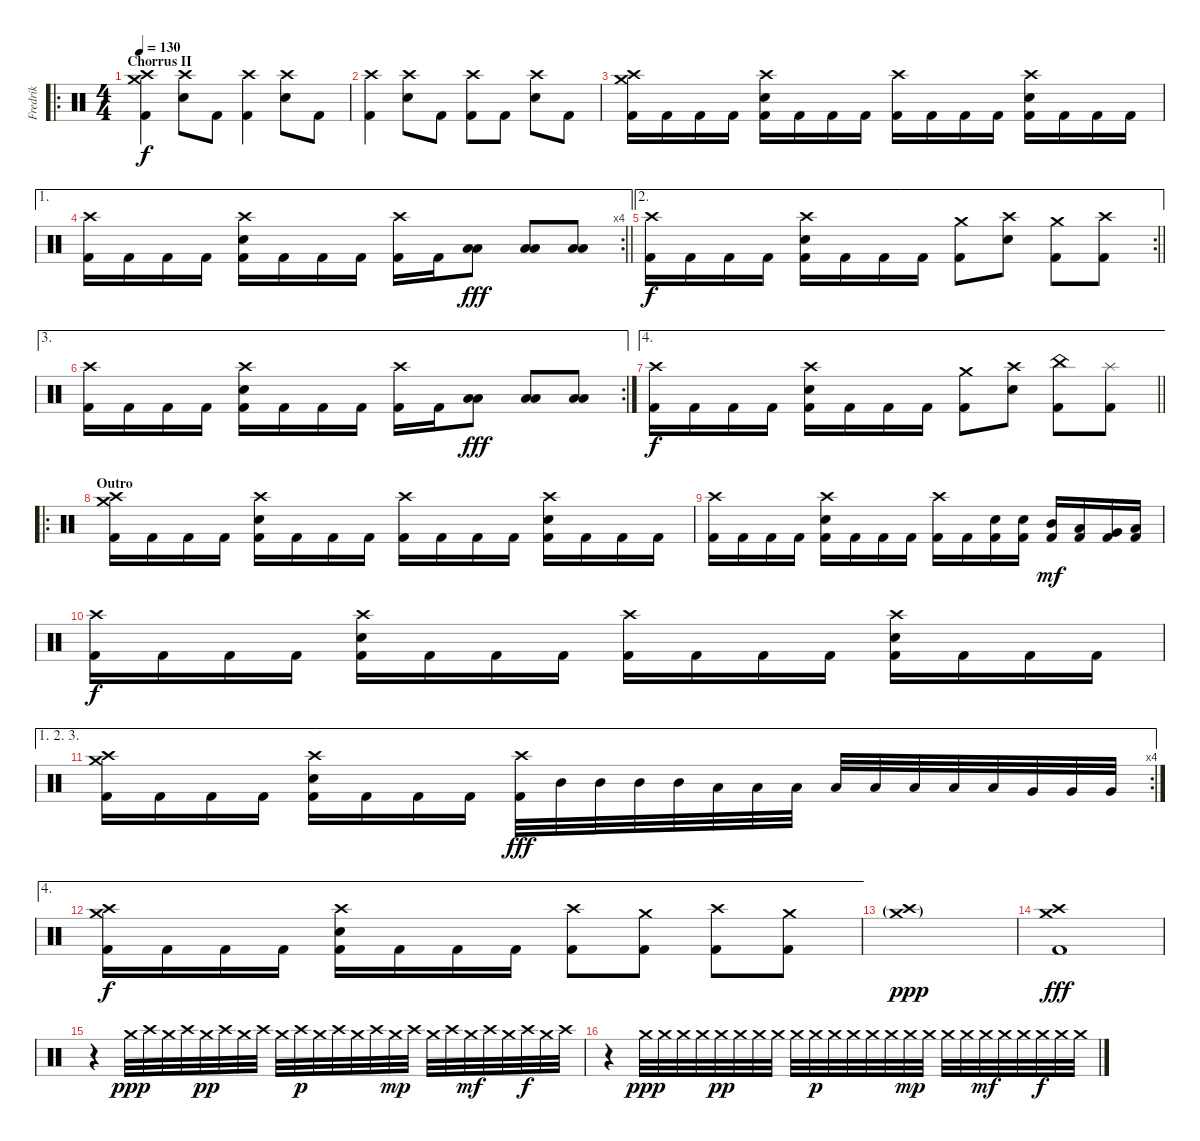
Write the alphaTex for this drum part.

\track ("Fredrik" "Fredrik") {instrument percussion}
\staff {score}
\articulation defaults
\ro
\ts (4 4)
\section ("" "Chorrus II")
\tempo 130
\clef neutral
\ks c
("Crash medium (hit)" "Crash high (hit)" "Kick (hit) 2").4{dy f} ("Crash high (hit)" "Electric Snare (hit)").8 "Kick (hit) 2".8 ("Crash high (hit)" "Kick (hit) 2").4 ("Crash high (hit)" "Electric Snare (hit)").8 "Kick (hit) 2".8 |
("Crash high (hit)" "Kick (hit) 2").4 ("Crash high (hit)" "Electric Snare (hit)").8 "Kick (hit) 2".8 ("Crash high (hit)" "Kick (hit) 2").8 "Kick (hit) 2".8 ("Crash high (hit)" "Electric Snare (hit)").8 "Kick (hit) 2".8 |
("Crash medium (hit)" "Crash high (hit)" "Kick (hit) 2").16 "Kick (hit) 2".16 "Kick (hit) 2".16 "Kick (hit) 2".16 ("Crash high (hit)" "Electric Snare (hit)" "Kick (hit) 2").16 "Kick (hit) 2".16 "Kick (hit) 2".16 "Kick (hit) 2".16 ("Crash high (hit)" "Kick (hit) 2").16 "Kick (hit) 2".16 "Kick (hit) 2".16 "Kick (hit) 2".16 ("Crash high (hit)" "Electric Snare (hit)" "Kick (hit) 2").16 "Kick (hit) 2".16 "Kick (hit) 2".16 "Kick (hit) 2".16 |
\ae 1
\rc 4
\barLineRight lightlight
("Crash high (hit)" "Kick (hit) 2").16 "Kick (hit) 2".16 "Kick (hit) 2".16 "Kick (hit) 2".16 ("Crash high (hit)" "Electric Snare (hit)" "Kick (hit) 2").16 "Kick (hit) 2".16 "Kick (hit) 2".16 "Kick (hit) 2".16 ("Crash high (hit)" "Kick (hit) 2").16 "Kick (hit) 2".16 ("Low Tom (hit)" "Low Floor Tom (hit)").8{dy fff} ("Low Tom (hit)" "Low Floor Tom (hit)").8 ("Low Tom (hit)" "Low Floor Tom (hit)").8 |
\ae 2
\rc 2
\barLineRight lightlight
("Crash high (hit)" "Kick (hit) 2").16{dy f} "Kick (hit) 2".16 "Kick (hit) 2".16 "Kick (hit) 2".16 ("Crash high (hit)" "Electric Snare (hit)" "Kick (hit) 2").16 "Kick (hit) 2".16 "Kick (hit) 2".16 "Kick (hit) 2".16 ("Crash medium (hit)" "Kick (hit) 2").8 ("Crash high (hit)" "Electric Snare (hit)").8 ("Crash medium (hit)" "Kick (hit) 2").8 ("Crash high (hit)" "Kick (hit) 2").8 |
\ae 3
\rc 2
("Crash high (hit)" "Kick (hit) 2").16 "Kick (hit) 2".16 "Kick (hit) 2".16 "Kick (hit) 2".16 ("Crash high (hit)" "Electric Snare (hit)" "Kick (hit) 2").16 "Kick (hit) 2".16 "Kick (hit) 2".16 "Kick (hit) 2".16 ("Crash high (hit)" "Kick (hit) 2").16 "Kick (hit) 2".16 ("Low Tom (hit)" "Low Floor Tom (hit)").8{dy fff} ("Low Tom (hit)" "Low Floor Tom (hit)").8 ("Low Tom (hit)" "Low Floor Tom (hit)").8 |
\ae 4
\barLineRight lightlight
("Crash high (hit)" "Kick (hit) 2").16{dy f} "Kick (hit) 2".16 "Kick (hit) 2".16 "Kick (hit) 2".16 ("Crash high (hit)" "Electric Snare (hit)" "Kick (hit) 2").16 "Kick (hit) 2".16 "Kick (hit) 2".16 "Kick (hit) 2".16 ("Crash medium (hit)" "Kick (hit) 2").8 ("Crash high (hit)" "Electric Snare (hit)").8 ("China (hit)" "Kick (hit) 2").8 ("Splash (hit)" "Kick (hit) 2").8 |
\ro
\section ("" "Outro")
("Crash medium (hit)" "Crash high (hit)" "Kick (hit) 2").16 "Kick (hit) 2".16 "Kick (hit) 2".16 "Kick (hit) 2".16 ("Crash high (hit)" "Electric Snare (hit)" "Kick (hit) 2").16 "Kick (hit) 2".16 "Kick (hit) 2".16 "Kick (hit) 2".16 ("Crash high (hit)" "Kick (hit) 2").16 "Kick (hit) 2".16 "Kick (hit) 2".16 "Kick (hit) 2".16 ("Crash high (hit)" "Electric Snare (hit)" "Kick (hit) 2").16 "Kick (hit) 2".16 "Kick (hit) 2".16 "Kick (hit) 2".16 |
("Crash high (hit)" "Kick (hit) 2").16 "Kick (hit) 2".16 "Kick (hit) 2".16 "Kick (hit) 2".16 ("Crash high (hit)" "Electric Snare (hit)" "Kick (hit) 2").16 "Kick (hit) 2".16 "Kick (hit) 2".16 "Kick (hit) 2".16 ("Crash high (hit)" "Kick (hit) 2").16 "Kick (hit) 2".16 ("Electric Snare (hit)" "Kick (hit) 2").16 ("Electric Snare (hit)" "Kick (hit) 2").16 ("Mid Tom (hit)" "Kick (hit) 2").16{dy mf} ("Low Tom (hit)" "Kick (hit) 2").16 ("Very Low Tom (hit)" "Kick (hit) 2").16 ("Low Floor Tom (hit)" "Kick (hit) 2").16 |
("Crash high (hit)" "Kick (hit) 2").16{dy f} "Kick (hit) 2".16 "Kick (hit) 2".16 "Kick (hit) 2".16 ("Crash high (hit)" "Electric Snare (hit)" "Kick (hit) 2").16 "Kick (hit) 2".16 "Kick (hit) 2".16 "Kick (hit) 2".16 ("Crash high (hit)" "Kick (hit) 2").16 "Kick (hit) 2".16 "Kick (hit) 2".16 "Kick (hit) 2".16 ("Crash high (hit)" "Electric Snare (hit)" "Kick (hit) 2").16 "Kick (hit) 2".16 "Kick (hit) 2".16 "Kick (hit) 2".16 |
\ae (1 2 3)
\rc 4
("Crash medium (hit)" "Crash high (hit)" "Kick (hit) 2").16 "Kick (hit) 2".16 "Kick (hit) 2".16 "Kick (hit) 2".16 ("Crash high (hit)" "Electric Snare (hit)" "Kick (hit) 2").16 "Kick (hit) 2".16 "Kick (hit) 2".16 "Kick (hit) 2".16 ("Crash high (hit)" "Kick (hit) 2").32{dy fff} "Mid Tom (hit)".32 "Mid Tom (hit)".32 "Mid Tom (hit)".32 "Mid Tom (hit)".32 "Low Tom (hit)".32 "Low Tom (hit)".32 "Low Tom (hit)".32 "Low Tom (hit)".32 "Low Floor Tom (hit)".32 "Low Floor Tom (hit)".32 "Low Floor Tom (hit)".32 "Low Floor Tom (hit)".32 "Very Low Tom (hit)".32 "Very Low Tom (hit)".32 "Very Low Tom (hit)".32 |
\ae 4
("Crash medium (hit)" "Crash high (hit)" "Kick (hit) 2").16{dy f} "Kick (hit) 2".16 "Kick (hit) 2".16 "Kick (hit) 2".16 ("Crash high (hit)" "Electric Snare (hit)" "Kick (hit) 2").16 "Kick (hit) 2".16 "Kick (hit) 2".16 "Kick (hit) 2".16 ("Crash high (hit)" "Kick (hit) 2").8 ("Crash medium (hit)" "Kick (hit) 2").8 ("Crash high (hit)" "Kick (hit) 2").8 ("Crash medium (hit)" "Kick (hit) 2").8 |
("Crash medium (hit)"{g} "Crash high (hit)"{g}).1{dy ppp} |
("Crash medium (hit)" "Crash high (hit)" "Kick (hit) 2").1{dy fff} |
r.4 "Crash medium (hit)".32{dy ppp} "Crash high (hit)".32 "Crash medium (hit)".32 "Crash high (hit)".32 "Crash medium (hit)".32{dy pp} "Crash high (hit)".32 "Crash medium (hit)".32 "Crash high (hit)".32 "Crash medium (hit)".32 "Crash high (hit)".32{dy p} "Crash medium (hit)".32 "Crash high (hit)".32 "Crash medium (hit)".32 "Crash high (hit)".32 "Crash medium (hit)".32{dy mp} "Crash high (hit)".32 "Crash medium (hit)".32 "Crash high (hit)".32 "Crash medium (hit)".32{dy mf} "Crash high (hit)".32 "Crash medium (hit)".32 "Crash high (hit)".32{dy f} "Crash medium (hit)".32 "Crash high (hit)".32 |
r.4 "Crash medium (hit)".32{dy ppp} "Crash medium (hit)".32 "Crash medium (hit)".32 "Crash medium (hit)".32 "Crash medium (hit)".32{dy pp} "Crash medium (hit)".32 "Crash medium (hit)".32 "Crash medium (hit)".32 "Crash medium (hit)".32 "Crash medium (hit)".32{dy p} "Crash medium (hit)".32 "Crash medium (hit)".32 "Crash medium (hit)".32 "Crash medium (hit)".32 "Crash medium (hit)".32{dy mp} "Crash medium (hit)".32 "Crash medium (hit)".32 "Crash medium (hit)".32 "Crash medium (hit)".32{dy mf} "Crash medium (hit)".32 "Crash medium (hit)".32 "Crash medium (hit)".32{dy f} "Crash medium (hit)".32 "Crash medium (hit)".32
